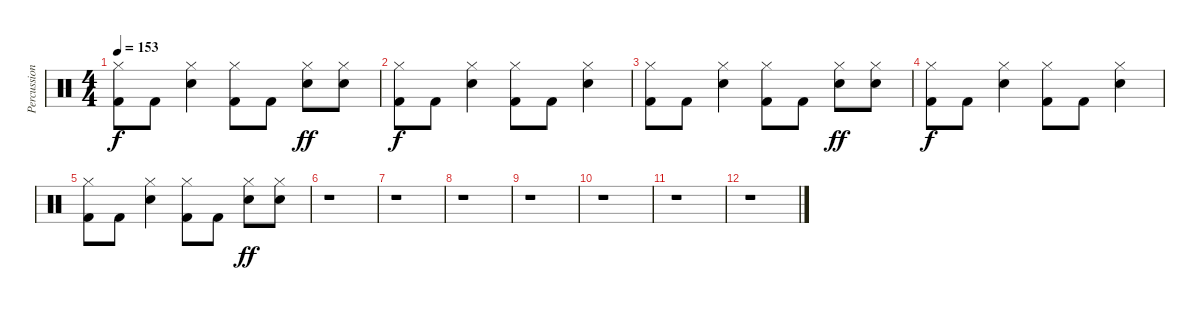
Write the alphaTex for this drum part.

\track ("Percussions" "Percussion") {instrument percussion}
\staff {score}
\articulation defaults
\ts (4 4)
\tempo 153
\clef neutral
\ks c
("Kick (hit) 2" "Hi-Hat (closed)").8{dy f} "Kick (hit) 2".8 ("Electric Snare (hit)" "Hi-Hat (closed)").4 ("Kick (hit) 2" "Hi-Hat (closed)").8 "Kick (hit) 2".8 ("Electric Snare (hit)" "Hi-Hat (closed)").8{dy ff} ("Electric Snare (hit)" "Hi-Hat (closed)").8 |
("Kick (hit) 2" "Hi-Hat (closed)").8{dy f} "Kick (hit) 2".8 ("Electric Snare (hit)" "Hi-Hat (closed)").4 ("Kick (hit) 2" "Hi-Hat (closed)").8 "Kick (hit) 2".8 ("Electric Snare (hit)" "Hi-Hat (closed)").4 |
("Kick (hit) 2" "Hi-Hat (closed)").8 "Kick (hit) 2".8 ("Electric Snare (hit)" "Hi-Hat (closed)").4 ("Kick (hit) 2" "Hi-Hat (closed)").8 "Kick (hit) 2".8 ("Electric Snare (hit)" "Hi-Hat (closed)").8{dy ff} ("Electric Snare (hit)" "Hi-Hat (closed)").8 |
("Kick (hit) 2" "Hi-Hat (closed)").8{dy f} "Kick (hit) 2".8 ("Electric Snare (hit)" "Hi-Hat (closed)").4 ("Kick (hit) 2" "Hi-Hat (closed)").8 "Kick (hit) 2".8 ("Electric Snare (hit)" "Hi-Hat (closed)").4 |
("Kick (hit) 2" "Hi-Hat (closed)").8 "Kick (hit) 2".8 ("Electric Snare (hit)" "Hi-Hat (closed)").4 ("Kick (hit) 2" "Hi-Hat (closed)").8 "Kick (hit) 2".8 ("Electric Snare (hit)" "Hi-Hat (closed)").8{dy ff} ("Electric Snare (hit)" "Hi-Hat (closed)").8 |
r.1 |
r.1 |
r.1 |
r.1 |
r.1 |
r.1 |
r.1
